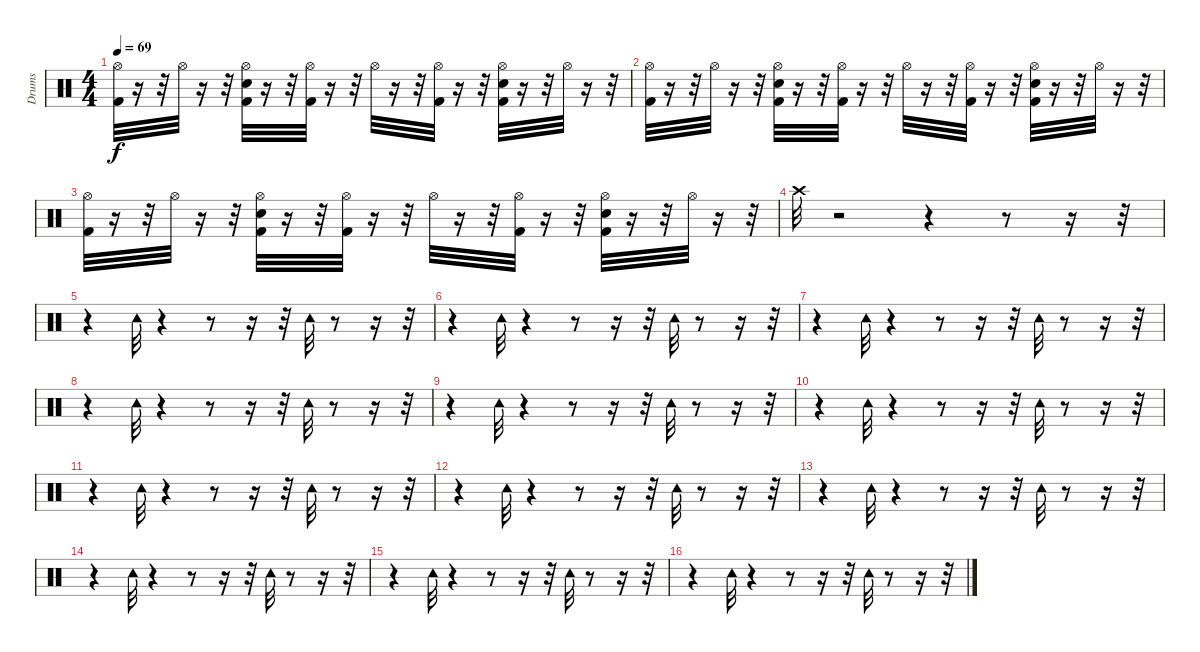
\track ("Drums" "Drums") {instrument percussion}
\staff {score}
\articulation defaults
\ts (4 4)
\tempo 69
\clef neutral
\ks c
("Hi-Hat (open)" "Kick (hit) 2").32{dy f} r.16 r.32 "Hi-Hat (open)".32 r.16 r.32 ("Electric Snare (hit)" "Hi-Hat (open)" "Kick (hit) 2").32 r.16 r.32 ("Kick (hit) 2" "Hi-Hat (open)").32 r.16 r.32 "Hi-Hat (open)".32 r.16 r.32 ("Kick (hit) 2" "Hi-Hat (open)").32 r.16 r.32 ("Electric Snare (hit)" "Kick (hit) 2" "Hi-Hat (open)").32 r.16 r.32 "Hi-Hat (open)".32 r.16 r.32 |
("Hi-Hat (open)" "Kick (hit) 2").32 r.16 r.32 "Hi-Hat (open)".32 r.16 r.32 ("Electric Snare (hit)" "Hi-Hat (open)" "Kick (hit) 2").32 r.16 r.32 ("Kick (hit) 2" "Hi-Hat (open)").32 r.16 r.32 "Hi-Hat (open)".32 r.16 r.32 ("Kick (hit) 2" "Hi-Hat (open)").32 r.16 r.32 ("Electric Snare (hit)" "Kick (hit) 2" "Hi-Hat (open)").32 r.16 r.32 "Hi-Hat (open)".32 r.16 r.32 |
("Hi-Hat (open)" "Kick (hit) 2").32 r.16 r.32 "Hi-Hat (open)".32 r.16 r.32 ("Electric Snare (hit)" "Hi-Hat (open)" "Kick (hit) 2").32 r.16 r.32 ("Kick (hit) 2" "Hi-Hat (open)").32 r.16 r.32 "Hi-Hat (open)".32 r.16 r.32 ("Kick (hit) 2" "Hi-Hat (open)").32 r.16 r.32 ("Electric Snare (hit)" "Kick (hit) 2" "Hi-Hat (open)").32 r.16 r.32 "Hi-Hat (open)".32 r.16 r.32 |
"Crash high (hit)".32 r.2 r.4 r.8 r.16 r.32 |
r.4 "Tambourine (hit)".32 r.4 r.8 r.16 r.32 "Tambourine (hit)".32 r.8 r.16 r.32 |
r.4 "Tambourine (hit)".32 r.4 r.8 r.16 r.32 "Tambourine (hit)".32 r.8 r.16 r.32 |
r.4 "Tambourine (hit)".32 r.4 r.8 r.16 r.32 "Tambourine (hit)".32 r.8 r.16 r.32 |
r.4 "Tambourine (hit)".32 r.4 r.8 r.16 r.32 "Tambourine (hit)".32 r.8 r.16 r.32 |
r.4 "Tambourine (hit)".32 r.4 r.8 r.16 r.32 "Tambourine (hit)".32 r.8 r.16 r.32 |
r.4 "Tambourine (hit)".32 r.4 r.8 r.16 r.32 "Tambourine (hit)".32 r.8 r.16 r.32 |
r.4 "Tambourine (hit)".32 r.4 r.8 r.16 r.32 "Tambourine (hit)".32 r.8 r.16 r.32 |
r.4 "Tambourine (hit)".32 r.4 r.8 r.16 r.32 "Tambourine (hit)".32 r.8 r.16 r.32 |
r.4 "Tambourine (hit)".32 r.4 r.8 r.16 r.32 "Tambourine (hit)".32 r.8 r.16 r.32 |
r.4 "Tambourine (hit)".32 r.4 r.8 r.16 r.32 "Tambourine (hit)".32 r.8 r.16 r.32 |
r.4 "Tambourine (hit)".32 r.4 r.8 r.16 r.32 "Tambourine (hit)".32 r.8 r.16 r.32 |
r.4 "Tambourine (hit)".32 r.4 r.8 r.16 r.32 "Tambourine (hit)".32 r.8 r.16 r.32
